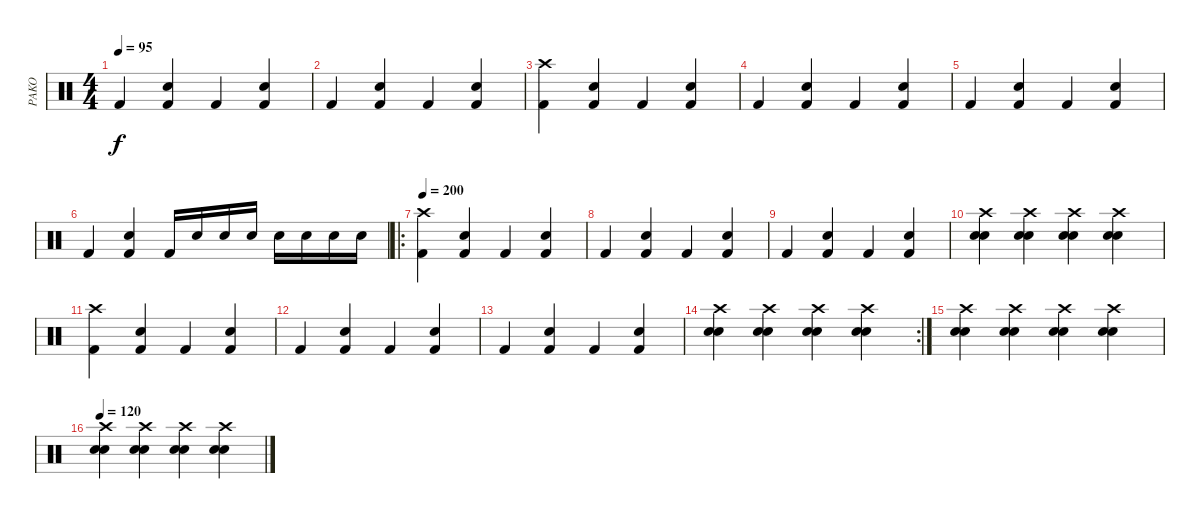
\track ("PAKO" "PAKO") {instrument percussion}
\staff {score}
\articulation defaults
\ts (4 4)
\tempo 95
\clef neutral
\ks c "Kick (hit) 2".4{dy f}
("Electric Snare (hit)" "Kick (hit) 2").4 "Kick (hit) 2".4 ("Electric Snare (hit)" "Kick (hit) 2").4 |
"Kick (hit) 2".4 ("Electric Snare (hit)" "Kick (hit) 2").4 "Kick (hit) 2".4 ("Electric Snare (hit)" "Kick (hit) 2").4 |
("Crash high (hit)" "Kick (hit) 2").4 ("Electric Snare (hit)" "Kick (hit) 2").4 "Kick (hit) 2".4 ("Electric Snare (hit)" "Kick (hit) 2").4 |
"Kick (hit) 2".4 ("Electric Snare (hit)" "Kick (hit) 2").4 "Kick (hit) 2".4 ("Electric Snare (hit)" "Kick (hit) 2").4 |
"Kick (hit) 2".4 ("Electric Snare (hit)" "Kick (hit) 2").4 "Kick (hit) 2".4 ("Electric Snare (hit)" "Kick (hit) 2").4 |
"Kick (hit) 2".4 ("Electric Snare (hit)" "Kick (hit) 2").4 "Kick (hit) 2".16 "Snare (hit) 2".16 "Electric Snare (hit)".16 "Electric Snare (hit)".16 "Electric Snare (hit)".16 "Electric Snare (hit)".16 "Electric Snare (hit)".16 "Electric Snare (hit)".16 |
\ro
\tempo 200
("Crash high (hit)" "Kick (hit) 2").4 ("Electric Snare (hit)" "Kick (hit) 2").4 "Kick (hit) 2".4 ("Electric Snare (hit)" "Kick (hit) 2").4 |
"Kick (hit) 2".4 ("Electric Snare (hit)" "Kick (hit) 2").4 "Kick (hit) 2".4 ("Electric Snare (hit)" "Kick (hit) 2").4 |
"Kick (hit) 2".4 ("Electric Snare (hit)" "Kick (hit) 2").4 "Kick (hit) 2".4 ("Electric Snare (hit)" "Kick (hit) 2").4 |
("Crash high (hit)" "Electric Snare (hit)" "Snare (hit) 2").4 ("Crash high (hit)" "Electric Snare (hit)" "Snare (hit) 2").4 ("Crash high (hit)" "Electric Snare (hit)" "Snare (hit) 2").4 ("Crash high (hit)" "Electric Snare (hit)" "Snare (hit) 2").4 |
("Crash high (hit)" "Kick (hit) 2").4 ("Electric Snare (hit)" "Kick (hit) 2").4 "Kick (hit) 2".4 ("Electric Snare (hit)" "Kick (hit) 2").4 |
"Kick (hit) 2".4 ("Electric Snare (hit)" "Kick (hit) 2").4 "Kick (hit) 2".4 ("Electric Snare (hit)" "Kick (hit) 2").4 |
"Kick (hit) 2".4 ("Electric Snare (hit)" "Kick (hit) 2").4 "Kick (hit) 2".4 ("Electric Snare (hit)" "Kick (hit) 2").4 |
\rc 2
("Crash high (hit)" "Electric Snare (hit)" "Snare (hit) 2").4 ("Crash high (hit)" "Electric Snare (hit)" "Snare (hit) 2").4 ("Crash high (hit)" "Electric Snare (hit)" "Snare (hit) 2").4 ("Crash high (hit)" "Electric Snare (hit)" "Snare (hit) 2").4 |
("Crash high (hit)" "Electric Snare (hit)" "Snare (hit) 2").4 ("Crash high (hit)" "Electric Snare (hit)" "Snare (hit) 2").4 ("Crash high (hit)" "Electric Snare (hit)" "Snare (hit) 2").4 ("Crash high (hit)" "Electric Snare (hit)" "Snare (hit) 2").4 |
\tempo 120
("Crash high (hit)" "Electric Snare (hit)" "Snare (hit) 2").4 ("Crash high (hit)" "Electric Snare (hit)" "Snare (hit) 2").4 ("Crash high (hit)" "Electric Snare (hit)" "Snare (hit) 2").4 ("Crash high (hit)" "Electric Snare (hit)" "Snare (hit) 2").4
